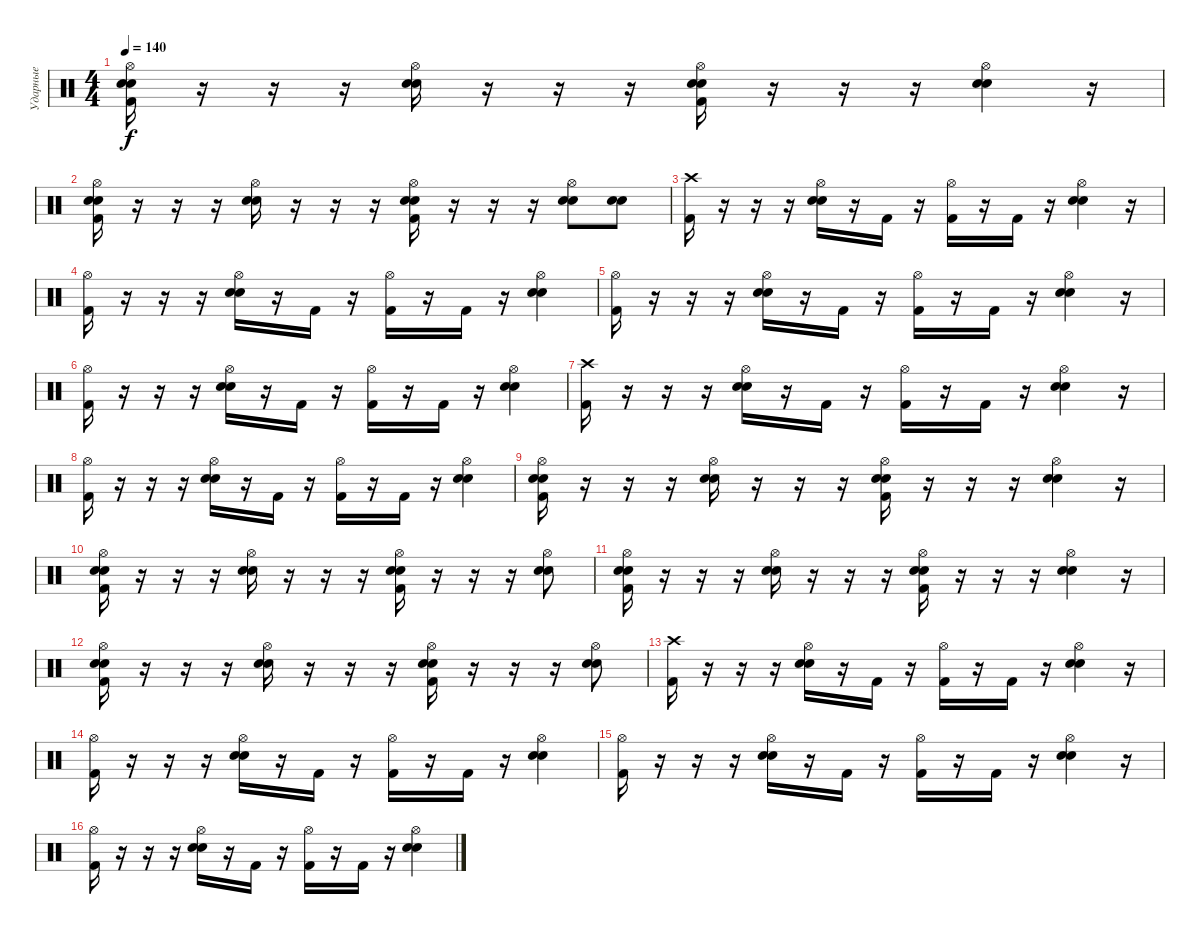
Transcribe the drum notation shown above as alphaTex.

\track ("Ударные" "Ударные") {instrument percussion}
\staff {score}
\articulation defaults
\ts (4 4)
\tempo 140
\clef neutral
\ks c
("Hi-Hat (open)" "Kick (hit) 2" "Electric Snare (hit)" "Snare (hit) 2").16{dy f} r.16 r.16 r.16 ("Hi-Hat (open)" "Electric Snare (hit)" "Snare (hit) 2").16 r.16 r.16 r.16 ("Hi-Hat (open)" "Kick (hit) 2" "Electric Snare (hit)" "Snare (hit) 2").16 r.16 r.16 r.16 ("Hi-Hat (open)" "Electric Snare (hit)" "Snare (hit) 2").4 r.16 |
("Hi-Hat (open)" "Kick (hit) 2" "Electric Snare (hit)" "Snare (hit) 2").16 r.16 r.16 r.16 ("Hi-Hat (open)" "Electric Snare (hit)" "Snare (hit) 2").16 r.16 r.16 r.16 ("Hi-Hat (open)" "Kick (hit) 2" "Electric Snare (hit)" "Snare (hit) 2").16 r.16 r.16 r.16 ("Hi-Hat (open)" "Electric Snare (hit)" "Snare (hit) 2").8 ("Electric Snare (hit)" "Snare (hit) 2").8 |
("Crash high (hit)" "Kick (hit) 2").16 r.16 r.16 r.16 ("Hi-Hat (open)" "Electric Snare (hit)" "Snare (hit) 2").16 r.16 "Kick (hit) 2".16 r.16 ("Hi-Hat (open)" "Kick (hit) 2").16 r.16 "Kick (hit) 2".16 r.16 ("Hi-Hat (open)" "Electric Snare (hit)" "Snare (hit) 2").4 r.16 |
("Hi-Hat (open)" "Kick (hit) 2").16 r.16 r.16 r.16 ("Hi-Hat (open)" "Electric Snare (hit)" "Snare (hit) 2").16 r.16 "Kick (hit) 2".16 r.16 ("Hi-Hat (open)" "Kick (hit) 2").16 r.16 "Kick (hit) 2".16 r.16 ("Hi-Hat (open)" "Electric Snare (hit)" "Snare (hit) 2").4 |
("Hi-Hat (open)" "Kick (hit) 2").16 r.16 r.16 r.16 ("Hi-Hat (open)" "Electric Snare (hit)" "Snare (hit) 2").16 r.16 "Kick (hit) 2".16 r.16 ("Hi-Hat (open)" "Kick (hit) 2").16 r.16 "Kick (hit) 2".16 r.16 ("Hi-Hat (open)" "Electric Snare (hit)" "Snare (hit) 2").4 r.16 |
("Hi-Hat (open)" "Kick (hit) 2").16 r.16 r.16 r.16 ("Hi-Hat (open)" "Electric Snare (hit)" "Snare (hit) 2").16 r.16 "Kick (hit) 2".16 r.16 ("Hi-Hat (open)" "Kick (hit) 2").16 r.16 "Kick (hit) 2".16 r.16 ("Hi-Hat (open)" "Electric Snare (hit)" "Snare (hit) 2").4 |
("Crash high (hit)" "Kick (hit) 2").16 r.16 r.16 r.16 ("Hi-Hat (open)" "Electric Snare (hit)" "Snare (hit) 2").16 r.16 "Kick (hit) 2".16 r.16 ("Hi-Hat (open)" "Kick (hit) 2").16 r.16 "Kick (hit) 2".16 r.16 ("Hi-Hat (open)" "Electric Snare (hit)" "Snare (hit) 2").4 r.16 |
("Hi-Hat (open)" "Kick (hit) 2").16 r.16 r.16 r.16 ("Hi-Hat (open)" "Electric Snare (hit)" "Snare (hit) 2").16 r.16 "Kick (hit) 2".16 r.16 ("Hi-Hat (open)" "Kick (hit) 2").16 r.16 "Kick (hit) 2".16 r.16 ("Hi-Hat (open)" "Electric Snare (hit)" "Snare (hit) 2").4 |
("Hi-Hat (open)" "Kick (hit) 2" "Electric Snare (hit)" "Snare (hit) 2").16 r.16 r.16 r.16 ("Hi-Hat (open)" "Electric Snare (hit)" "Snare (hit) 2").16 r.16 r.16 r.16 ("Hi-Hat (open)" "Kick (hit) 2" "Electric Snare (hit)" "Snare (hit) 2").16 r.16 r.16 r.16 ("Hi-Hat (open)" "Electric Snare (hit)" "Snare (hit) 2").4 r.16 |
("Hi-Hat (open)" "Kick (hit) 2" "Electric Snare (hit)" "Snare (hit) 2").16 r.16 r.16 r.16 ("Hi-Hat (open)" "Electric Snare (hit)" "Snare (hit) 2").16 r.16 r.16 r.16 ("Hi-Hat (open)" "Kick (hit) 2" "Electric Snare (hit)" "Snare (hit) 2").16 r.16 r.16 r.16 ("Hi-Hat (open)" "Electric Snare (hit)" "Snare (hit) 2").8 |
("Hi-Hat (open)" "Kick (hit) 2" "Electric Snare (hit)" "Snare (hit) 2").16 r.16 r.16 r.16 ("Hi-Hat (open)" "Electric Snare (hit)" "Snare (hit) 2").16 r.16 r.16 r.16 ("Hi-Hat (open)" "Kick (hit) 2" "Electric Snare (hit)" "Snare (hit) 2").16 r.16 r.16 r.16 ("Hi-Hat (open)" "Electric Snare (hit)" "Snare (hit) 2").4 r.16 |
("Hi-Hat (open)" "Kick (hit) 2" "Electric Snare (hit)" "Snare (hit) 2").16 r.16 r.16 r.16 ("Hi-Hat (open)" "Electric Snare (hit)" "Snare (hit) 2").16 r.16 r.16 r.16 ("Hi-Hat (open)" "Kick (hit) 2" "Electric Snare (hit)" "Snare (hit) 2").16 r.16 r.16 r.16 ("Hi-Hat (open)" "Electric Snare (hit)" "Snare (hit) 2").8 |
("Crash high (hit)" "Kick (hit) 2").16 r.16 r.16 r.16 ("Hi-Hat (open)" "Electric Snare (hit)" "Snare (hit) 2").16 r.16 "Kick (hit) 2".16 r.16 ("Hi-Hat (open)" "Kick (hit) 2").16 r.16 "Kick (hit) 2".16 r.16 ("Hi-Hat (open)" "Electric Snare (hit)" "Snare (hit) 2").4 r.16 |
("Hi-Hat (open)" "Kick (hit) 2").16 r.16 r.16 r.16 ("Hi-Hat (open)" "Electric Snare (hit)" "Snare (hit) 2").16 r.16 "Kick (hit) 2".16 r.16 ("Hi-Hat (open)" "Kick (hit) 2").16 r.16 "Kick (hit) 2".16 r.16 ("Hi-Hat (open)" "Electric Snare (hit)" "Snare (hit) 2").4 |
("Hi-Hat (open)" "Kick (hit) 2").16 r.16 r.16 r.16 ("Hi-Hat (open)" "Electric Snare (hit)" "Snare (hit) 2").16 r.16 "Kick (hit) 2".16 r.16 ("Hi-Hat (open)" "Kick (hit) 2").16 r.16 "Kick (hit) 2".16 r.16 ("Hi-Hat (open)" "Electric Snare (hit)" "Snare (hit) 2").4 r.16 |
("Hi-Hat (open)" "Kick (hit) 2").16 r.16 r.16 r.16 ("Hi-Hat (open)" "Electric Snare (hit)" "Snare (hit) 2").16 r.16 "Kick (hit) 2".16 r.16 ("Hi-Hat (open)" "Kick (hit) 2").16 r.16 "Kick (hit) 2".16 r.16 ("Hi-Hat (open)" "Electric Snare (hit)" "Snare (hit) 2").4
